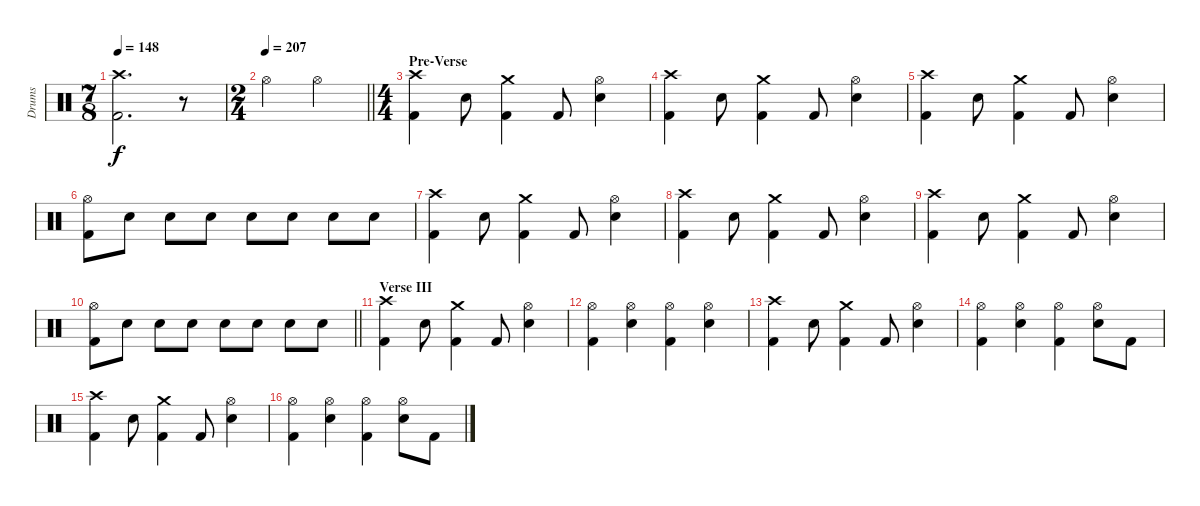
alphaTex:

\track ("Drums" "Drums") {instrument percussion}
\staff {score}
\articulation defaults
\ts (7 8)
\tempo 148
\clef neutral
\ks c
("Crash high (hit)" "Kick (hit) 2").2{d dy f} r.8 |
\ts (2 4)
\tempo 207
\barLineRight lightlight "Hi-Hat (open)".4 "Hi-Hat (open)".4
|
\ts (4 4)
\section ("" "Pre-Verse")
("Crash high (hit)" "Kick (hit) 2").4 "Snare (hit) 2".8 ("Crash medium (hit)" "Kick (hit) 2").4 "Kick (hit) 2".8 ("Hi-Hat (open)" "Snare (hit) 2").4 |
("Crash high (hit)" "Kick (hit) 2").4 "Snare (hit) 2".8 ("Crash medium (hit)" "Kick (hit) 2").4 "Kick (hit) 2".8 ("Hi-Hat (open)" "Snare (hit) 2").4 |
("Crash high (hit)" "Kick (hit) 2").4 "Snare (hit) 2".8 ("Crash medium (hit)" "Kick (hit) 2").4 "Kick (hit) 2".8 ("Hi-Hat (open)" "Snare (hit) 2").4 |
("Hi-Hat (open)" "Kick (hit) 2").8 "Snare (hit) 2".8 "Snare (hit) 2".8 "Snare (hit) 2".8 "Snare (hit) 2".8 "Snare (hit) 2".8 "Snare (hit) 2".8 "Snare (hit) 2".8 |
("Crash high (hit)" "Kick (hit) 2").4 "Snare (hit) 2".8 ("Crash medium (hit)" "Kick (hit) 2").4 "Kick (hit) 2".8 ("Hi-Hat (open)" "Snare (hit) 2").4 |
("Crash high (hit)" "Kick (hit) 2").4 "Snare (hit) 2".8 ("Crash medium (hit)" "Kick (hit) 2").4 "Kick (hit) 2".8 ("Hi-Hat (open)" "Snare (hit) 2").4 |
("Crash high (hit)" "Kick (hit) 2").4 "Snare (hit) 2".8 ("Crash medium (hit)" "Kick (hit) 2").4 "Kick (hit) 2".8 ("Hi-Hat (open)" "Snare (hit) 2").4 |
\barLineRight lightlight
("Hi-Hat (open)" "Kick (hit) 2").8 "Snare (hit) 2".8 "Snare (hit) 2".8 "Snare (hit) 2".8 "Snare (hit) 2".8 "Snare (hit) 2".8 "Snare (hit) 2".8 "Snare (hit) 2".8 |
\section ("" "Verse III")
("Crash high (hit)" "Kick (hit) 2").4 "Snare (hit) 2".8 ("Crash medium (hit)" "Kick (hit) 2").4 "Kick (hit) 2".8 ("Hi-Hat (open)" "Snare (hit) 2").4 |
("Hi-Hat (open)" "Kick (hit) 2").4 ("Hi-Hat (open)" "Snare (hit) 2").4 ("Hi-Hat (open)" "Kick (hit) 2").4 ("Hi-Hat (open)" "Snare (hit) 2").4 |
("Crash high (hit)" "Kick (hit) 2").4 "Snare (hit) 2".8 ("Crash medium (hit)" "Kick (hit) 2").4 "Kick (hit) 2".8 ("Hi-Hat (open)" "Snare (hit) 2").4 |
("Hi-Hat (open)" "Kick (hit) 2").4 ("Hi-Hat (open)" "Snare (hit) 2").4 ("Hi-Hat (open)" "Kick (hit) 2").4 ("Hi-Hat (open)" "Snare (hit) 2").8 "Kick (hit) 2".8 |
("Crash high (hit)" "Kick (hit) 2").4 "Snare (hit) 2".8 ("Crash medium (hit)" "Kick (hit) 2").4 "Kick (hit) 2".8 ("Hi-Hat (open)" "Snare (hit) 2").4 |
("Hi-Hat (open)" "Kick (hit) 2").4 ("Hi-Hat (open)" "Snare (hit) 2").4 ("Hi-Hat (open)" "Kick (hit) 2").4 ("Hi-Hat (open)" "Snare (hit) 2").8 "Kick (hit) 2".8
